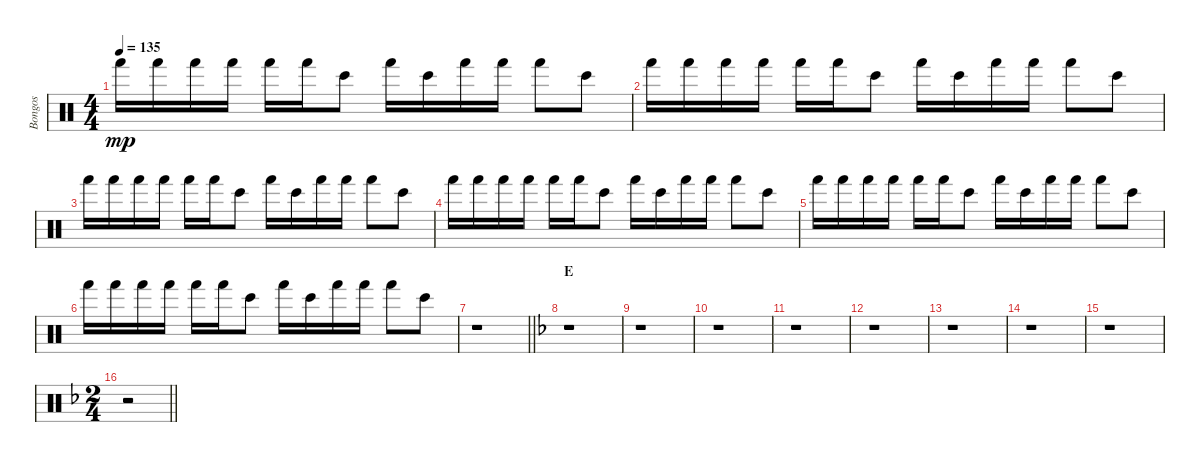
\track ("Bongos" "Bongos") {instrument percussion}
\staff {score}
\articulation defaults
\ts (4 4)
\tempo 135
\clef neutral
\ks c "Hand (hit)".16{dy mp} "Hand (hit)".16 "Hand (hit)".16 "Hand (hit)".16 "Hand (hit)".16 "Hand (hit)".16 "Bongo High (hit)".8 "Hand (hit)".16 "Bongo High (hit)".16 "Hand (hit)".16 "Hand (hit)".16 "Hand (hit)".8 "Bongo High (hit)".8
|
"Hand (hit)".16 "Hand (hit)".16 "Hand (hit)".16 "Hand (hit)".16 "Hand (hit)".16 "Hand (hit)".16 "Bongo High (hit)".8 "Hand (hit)".16 "Bongo High (hit)".16 "Hand (hit)".16 "Hand (hit)".16 "Hand (hit)".8 "Bongo High (hit)".8 |
"Hand (hit)".16 "Hand (hit)".16 "Hand (hit)".16 "Hand (hit)".16 "Hand (hit)".16 "Hand (hit)".16 "Bongo High (hit)".8 "Hand (hit)".16 "Bongo High (hit)".16 "Hand (hit)".16 "Hand (hit)".16 "Hand (hit)".8 "Bongo High (hit)".8 |
"Hand (hit)".16 "Hand (hit)".16 "Hand (hit)".16 "Hand (hit)".16 "Hand (hit)".16 "Hand (hit)".16 "Bongo High (hit)".8 "Hand (hit)".16 "Bongo High (hit)".16 "Hand (hit)".16 "Hand (hit)".16 "Hand (hit)".8 "Bongo High (hit)".8 |
"Hand (hit)".16 "Hand (hit)".16 "Hand (hit)".16 "Hand (hit)".16 "Hand (hit)".16 "Hand (hit)".16 "Bongo High (hit)".8 "Hand (hit)".16 "Bongo High (hit)".16 "Hand (hit)".16 "Hand (hit)".16 "Hand (hit)".8 "Bongo High (hit)".8 |
"Hand (hit)".16 "Hand (hit)".16 "Hand (hit)".16 "Hand (hit)".16 "Hand (hit)".16 "Hand (hit)".16 "Bongo High (hit)".8 "Hand (hit)".16 "Bongo High (hit)".16 "Hand (hit)".16 "Hand (hit)".16 "Hand (hit)".8 "Bongo High (hit)".8 |
\barLineRight lightlight
r.1 |
\section ("" "E")
\ks f
r.1 |
r.1 |
r.1 |
r.1 |
r.1 |
r.1 |
r.1 |
r.1 |
\ts (2 4)
\barLineRight lightlight
r.2
